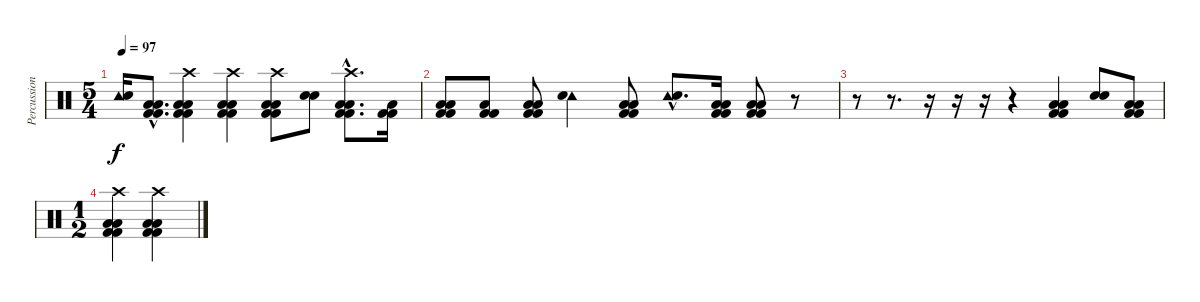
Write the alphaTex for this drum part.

\track ("Percussions" "Percussion") {instrument percussion}
\staff {score}
\articulation defaults
\ts (5 4)
\tempo 97
\clef neutral
\ks c
("Tambourine (hit)" "Electric Snare (hit)").16{dy f} ("Kick (hit) 2"{hac} "Kick (hit) 2"{hac} "Low Floor Tom (hit)"{hac} "Low Floor Tom (hit)"{hac}).8{d} ("Kick (hit) 2" "Kick (hit) 2" "Low Floor Tom (hit)" "Low Floor Tom (hit)" "Crash high (hit)").4{volume 7} ("Kick (hit) 2" "Kick (hit) 2" "Low Floor Tom (hit)" "Low Floor Tom (hit)" "Crash high (hit)").4 ("Kick (hit) 2" "Kick (hit) 2" "Low Floor Tom (hit)" "Low Floor Tom (hit)" "Crash high (hit)").8 ("Electric Snare (hit)" "Electric Snare (hit)").8 ("Kick (hit) 2"{hac} "Kick (hit) 2"{hac} "Low Floor Tom (hit)"{hac} "Low Floor Tom (hit)"{hac} "Crash high (hit)"{hac}).8{d} ("Kick (hit) 2" "Kick (hit) 2" "Low Floor Tom (hit)").16 |
("Kick (hit) 2" "Kick (hit) 2" "Low Floor Tom (hit)" "Low Floor Tom (hit)").8 ("Kick (hit) 2" "Kick (hit) 2" "Low Floor Tom (hit)").8 ("Kick (hit) 2" "Kick (hit) 2" "Low Floor Tom (hit)" "Low Floor Tom (hit)").8 ("Tambourine (hit)" "Electric Snare (hit)").4 ("Kick (hit) 2" "Kick (hit) 2" "Low Floor Tom (hit)" "Low Floor Tom (hit)").8 ("Tambourine (hit)"{hac} "Electric Snare (hit)"{hac}).8{d} ("Kick (hit) 2" "Kick (hit) 2" "Low Floor Tom (hit)" "Low Floor Tom (hit)").16 ("Kick (hit) 2" "Kick (hit) 2" "Low Floor Tom (hit)" "Low Floor Tom (hit)").8 r.8{volume 0} |
r.8 r.8{d} r.16 r.16 r.16 r.4 ("Kick (hit) 2" "Kick (hit) 2" "Low Floor Tom (hit)" "Low Floor Tom (hit)").4 ("Electric Snare (hit)" "Electric Snare (hit)").8 ("Kick (hit) 2" "Kick (hit) 2" "Low Floor Tom (hit)" "Low Floor Tom (hit)").8 |
\ts (1 2)
("Kick (hit) 2" "Kick (hit) 2" "Low Floor Tom (hit)" "Low Floor Tom (hit)" "Crash high (hit)").4 ("Kick (hit) 2" "Kick (hit) 2" "Low Floor Tom (hit)" "Low Floor Tom (hit)" "Crash high (hit)").4
